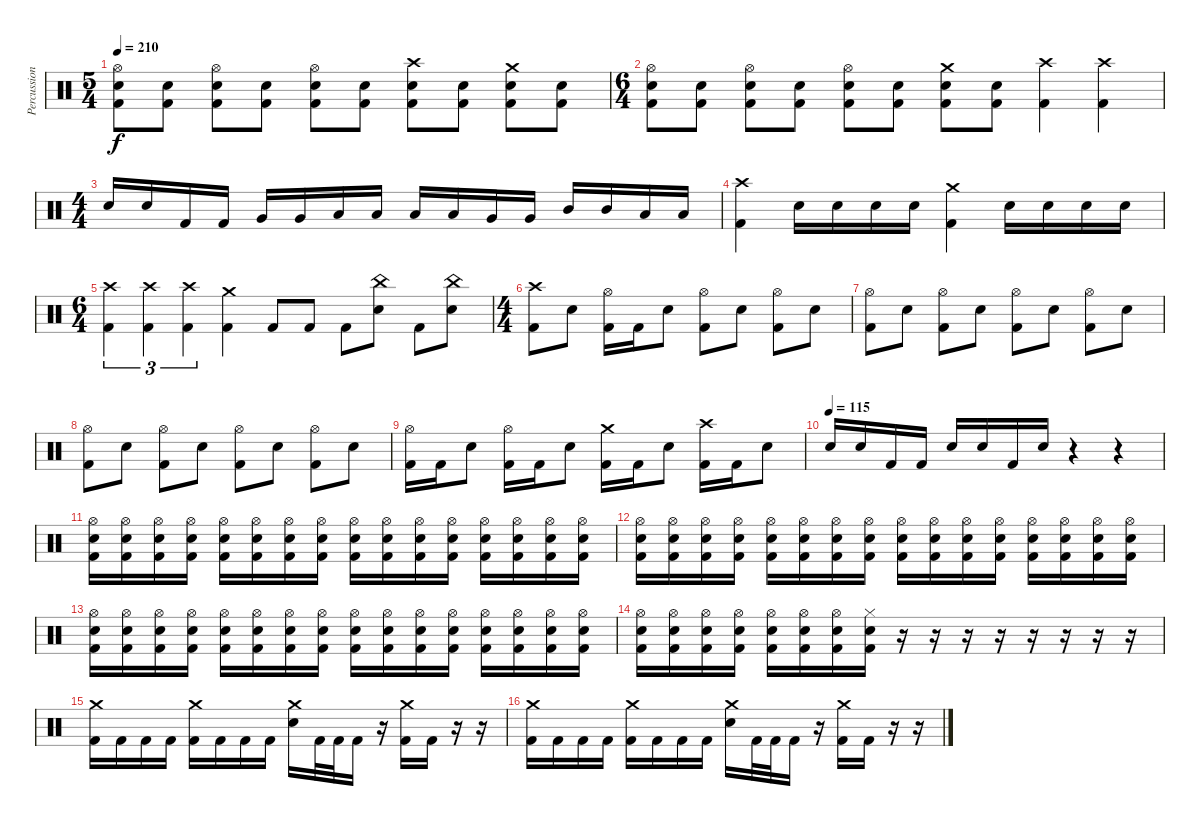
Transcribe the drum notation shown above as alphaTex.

\track ("Percussion" "Percussion") {instrument percussion}
\staff {score}
\articulation defaults
\ts (5 4)
\tempo 210
\clef neutral
\ks c
("Hi-Hat (open)" "Electric Snare (hit)" "Kick (hit) 2").8{dy f} ("Electric Snare (hit)" "Kick (hit) 2").8 ("Hi-Hat (open)" "Electric Snare (hit)" "Kick (hit) 2").8 ("Electric Snare (hit)" "Kick (hit) 2").8 ("Hi-Hat (open)" "Electric Snare (hit)" "Kick (hit) 2").8 ("Electric Snare (hit)" "Kick (hit) 2").8 ("Crash high (hit)" "Electric Snare (hit)" "Kick (hit) 2").8 ("Electric Snare (hit)" "Kick (hit) 2").8 ("Crash medium (hit)" "Electric Snare (hit)" "Kick (hit) 2").8 ("Electric Snare (hit)" "Kick (hit) 2").8 |
\ts (6 4)
("Hi-Hat (open)" "Electric Snare (hit)" "Kick (hit) 2").8 ("Electric Snare (hit)" "Kick (hit) 2").8 ("Hi-Hat (open)" "Electric Snare (hit)" "Kick (hit) 2").8 ("Electric Snare (hit)" "Kick (hit) 2").8 ("Hi-Hat (open)" "Electric Snare (hit)" "Kick (hit) 2").8 ("Electric Snare (hit)" "Kick (hit) 2").8 ("Crash medium (hit)" "Electric Snare (hit)" "Kick (hit) 2").8 ("Electric Snare (hit)" "Kick (hit) 2").8 ("Crash high (hit)" "Kick (hit) 2").4 ("Crash high (hit)" "Kick (hit) 2").4 |
\ts (4 4)
"Electric Snare (hit)".16 "Electric Snare (hit)".16 "Kick (hit) 2".16 "Kick (hit) 2".16 "Very Low Tom (hit)".16 "Very Low Tom (hit)".16 "Low Floor Tom (hit)".16 "Low Floor Tom (hit)".16 "Low Tom (hit)".16 "Low Tom (hit)".16 "Very Low Tom (hit)".16 "Very Low Tom (hit)".16 "Mid Tom (hit)".16 "Mid Tom (hit)".16 "Low Tom (hit)".16 "Low Tom (hit)".16 |
("Crash high (hit)" "Kick (hit) 2").4 "Electric Snare (hit)".16 "Electric Snare (hit)".16 "Electric Snare (hit)".16 "Electric Snare (hit)".16 ("Crash medium (hit)" "Kick (hit) 2").4 "Electric Snare (hit)".16 "Electric Snare (hit)".16 "Electric Snare (hit)".16 "Electric Snare (hit)".16 |
\ts (6 4)
("Crash high (hit)" "Kick (hit) 2").4{tu (3 2)} ("Crash high (hit)" "Kick (hit) 2").4{tu (3 2)} ("Crash high (hit)" "Kick (hit) 2").4{tu (3 2)} ("Crash medium (hit)" "Kick (hit) 2").4 "Kick (hit) 2".8 "Kick (hit) 2".8 "Kick (hit) 2".8 ("China (hit)" "Electric Snare (hit)").8 "Kick (hit) 2".8 ("China (hit)" "Electric Snare (hit)").8 |
\ts (4 4)
("Crash high (hit)" "Kick (hit) 2").8 "Electric Snare (hit)".8 ("Hi-Hat (open)" "Kick (hit) 2").16 "Kick (hit) 2".16 "Electric Snare (hit)".8 ("Hi-Hat (open)" "Kick (hit) 2").8 "Electric Snare (hit)".8 ("Hi-Hat (open)" "Kick (hit) 2").8 "Electric Snare (hit)".8 |
("Hi-Hat (open)" "Kick (hit) 2").8 "Electric Snare (hit)".8 ("Hi-Hat (open)" "Kick (hit) 2").8 "Electric Snare (hit)".8 ("Hi-Hat (open)" "Kick (hit) 2").8 "Electric Snare (hit)".8 ("Hi-Hat (open)" "Kick (hit) 2").8 "Electric Snare (hit)".8 |
("Hi-Hat (open)" "Kick (hit) 2").8 "Electric Snare (hit)".8 ("Hi-Hat (open)" "Kick (hit) 2").8 "Electric Snare (hit)".8 ("Hi-Hat (open)" "Kick (hit) 2").8 "Electric Snare (hit)".8 ("Hi-Hat (open)" "Kick (hit) 2").8 "Electric Snare (hit)".8 |
("Hi-Hat (open)" "Kick (hit) 2").16 "Kick (hit) 2".16 "Electric Snare (hit)".8 ("Hi-Hat (open)" "Kick (hit) 2").16 "Kick (hit) 2".16 "Electric Snare (hit)".8 ("Crash medium (hit)" "Kick (hit) 2").16 "Kick (hit) 2".16 "Electric Snare (hit)".8 ("Crash high (hit)" "Kick (hit) 2").16 "Kick (hit) 2".16 "Electric Snare (hit)".8 |
\tempo (115)
"Electric Snare (hit)".16 "Electric Snare (hit)".16 "Kick (hit) 2".16 "Kick (hit) 2".16 "Electric Snare (hit)".16 "Electric Snare (hit)".16 "Kick (hit) 2".16 "Electric Snare (hit)".16 r.4 r.4 |
("Hi-Hat (open)" "Electric Snare (hit)" "Kick (hit) 2").16 ("Hi-Hat (open)" "Electric Snare (hit)" "Kick (hit) 2").16 ("Hi-Hat (open)" "Electric Snare (hit)" "Kick (hit) 2").16 ("Hi-Hat (open)" "Electric Snare (hit)" "Kick (hit) 2").16 ("Hi-Hat (open)" "Electric Snare (hit)" "Kick (hit) 2").16 ("Hi-Hat (open)" "Electric Snare (hit)" "Kick (hit) 2").16 ("Hi-Hat (open)" "Electric Snare (hit)" "Kick (hit) 2").16 ("Hi-Hat (open)" "Electric Snare (hit)" "Kick (hit) 2").16 ("Hi-Hat (open)" "Electric Snare (hit)" "Kick (hit) 2").16 ("Hi-Hat (open)" "Electric Snare (hit)" "Kick (hit) 2").16 ("Hi-Hat (open)" "Electric Snare (hit)" "Kick (hit) 2").16 ("Hi-Hat (open)" "Electric Snare (hit)" "Kick (hit) 2").16 ("Hi-Hat (open)" "Electric Snare (hit)" "Kick (hit) 2").16 ("Hi-Hat (open)" "Electric Snare (hit)" "Kick (hit) 2").16 ("Hi-Hat (open)" "Electric Snare (hit)" "Kick (hit) 2").16 ("Hi-Hat (open)" "Electric Snare (hit)" "Kick (hit) 2").16 |
("Hi-Hat (open)" "Electric Snare (hit)" "Kick (hit) 2").16 ("Hi-Hat (open)" "Electric Snare (hit)" "Kick (hit) 2").16 ("Hi-Hat (open)" "Electric Snare (hit)" "Kick (hit) 2").16 ("Hi-Hat (open)" "Electric Snare (hit)" "Kick (hit) 2").16 ("Hi-Hat (open)" "Electric Snare (hit)" "Kick (hit) 2").16 ("Hi-Hat (open)" "Electric Snare (hit)" "Kick (hit) 2").16 ("Hi-Hat (open)" "Electric Snare (hit)" "Kick (hit) 2").16 ("Hi-Hat (open)" "Electric Snare (hit)" "Kick (hit) 2").16 ("Hi-Hat (open)" "Electric Snare (hit)" "Kick (hit) 2").16 ("Hi-Hat (open)" "Electric Snare (hit)" "Kick (hit) 2").16 ("Hi-Hat (open)" "Electric Snare (hit)" "Kick (hit) 2").16 ("Hi-Hat (open)" "Electric Snare (hit)" "Kick (hit) 2").16 ("Hi-Hat (open)" "Electric Snare (hit)" "Kick (hit) 2").16 ("Hi-Hat (open)" "Electric Snare (hit)" "Kick (hit) 2").16 ("Hi-Hat (open)" "Electric Snare (hit)" "Kick (hit) 2").16 ("Hi-Hat (open)" "Electric Snare (hit)" "Kick (hit) 2").16 |
("Hi-Hat (open)" "Electric Snare (hit)" "Kick (hit) 2").16 ("Hi-Hat (open)" "Electric Snare (hit)" "Kick (hit) 2").16 ("Hi-Hat (open)" "Electric Snare (hit)" "Kick (hit) 2").16 ("Hi-Hat (open)" "Electric Snare (hit)" "Kick (hit) 2").16 ("Hi-Hat (open)" "Electric Snare (hit)" "Kick (hit) 2").16 ("Hi-Hat (open)" "Electric Snare (hit)" "Kick (hit) 2").16 ("Hi-Hat (open)" "Electric Snare (hit)" "Kick (hit) 2").16 ("Hi-Hat (open)" "Electric Snare (hit)" "Kick (hit) 2").16 ("Hi-Hat (open)" "Electric Snare (hit)" "Kick (hit) 2").16 ("Hi-Hat (open)" "Electric Snare (hit)" "Kick (hit) 2").16 ("Hi-Hat (open)" "Electric Snare (hit)" "Kick (hit) 2").16 ("Hi-Hat (open)" "Electric Snare (hit)" "Kick (hit) 2").16 ("Hi-Hat (open)" "Electric Snare (hit)" "Kick (hit) 2").16 ("Hi-Hat (open)" "Electric Snare (hit)" "Kick (hit) 2").16 ("Hi-Hat (open)" "Electric Snare (hit)" "Kick (hit) 2").16 ("Hi-Hat (open)" "Electric Snare (hit)" "Kick (hit) 2").16 |
("Hi-Hat (open)" "Electric Snare (hit)" "Kick (hit) 2").16 ("Hi-Hat (open)" "Electric Snare (hit)" "Kick (hit) 2").16 ("Hi-Hat (open)" "Electric Snare (hit)" "Kick (hit) 2").16 ("Hi-Hat (open)" "Electric Snare (hit)" "Kick (hit) 2").16 ("Hi-Hat (open)" "Electric Snare (hit)" "Kick (hit) 2").16 ("Hi-Hat (open)" "Electric Snare (hit)" "Kick (hit) 2").16 ("Hi-Hat (open)" "Electric Snare (hit)" "Kick (hit) 2").16 ("Hi-Hat (closed)" "Electric Snare (hit)" "Kick (hit) 2").16 r.16 r.16 r.16 r.16 r.16 r.16 r.16 r.16 |
("Crash medium (hit)" "Kick (hit) 2").16 "Kick (hit) 2".16 "Kick (hit) 2".16 "Kick (hit) 2".16 ("Crash medium (hit)" "Kick (hit) 2").16 "Kick (hit) 2".16 "Kick (hit) 2".16 "Kick (hit) 2".16 ("Crash medium (hit)" "Electric Snare (hit)").16 "Kick (hit) 2".32 "Kick (hit) 2".32 "Kick (hit) 2".16 r.16 ("Crash medium (hit)" "Kick (hit) 2").16 "Kick (hit) 2".16 r.16 r.16 |
("Crash medium (hit)" "Kick (hit) 2").16 "Kick (hit) 2".16 "Kick (hit) 2".16 "Kick (hit) 2".16 ("Crash medium (hit)" "Kick (hit) 2").16 "Kick (hit) 2".16 "Kick (hit) 2".16 "Kick (hit) 2".16 ("Crash medium (hit)" "Electric Snare (hit)").16 "Kick (hit) 2".32 "Kick (hit) 2".32 "Kick (hit) 2".16 r.16 ("Crash medium (hit)" "Kick (hit) 2").16 "Kick (hit) 2".16 r.16 r.16
